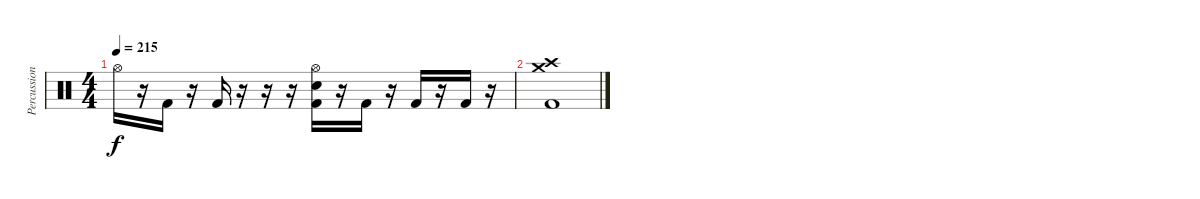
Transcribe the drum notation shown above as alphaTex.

\track ("Percussion" "Percussion") {instrument percussion}
\staff {score}
\articulation defaults
\ts (4 4)
\tempo 215
\clef neutral
\ks c "Hi-Hat (open)".16{dy f}
r.16 "Kick (hit) 2".16 r.16 "Kick (hit) 2".16 r.16 r.16 r.16 ("Hi-Hat (open)" "Electric Snare (hit)" "Kick (hit) 2").16 r.16 "Kick (hit) 2".16 r.16 "Kick (hit) 2".16 r.16 "Kick (hit) 2".16 r.16 |
("Crash medium (hit)" "Crash high (hit)" "Kick (hit) 2").1
